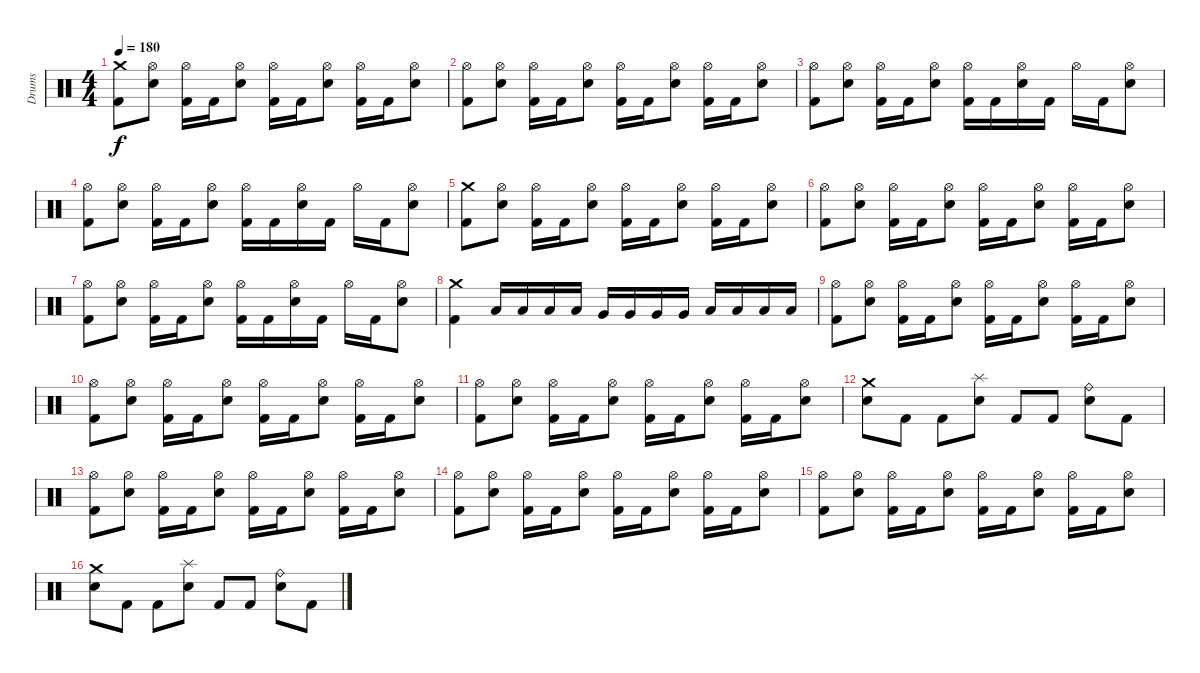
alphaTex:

\track ("Drums" "Drums") {instrument percussion}
\staff {score}
\articulation defaults
\ts (4 4)
\tempo 180
\clef neutral
\ks c
("Crash medium (hit)" "Kick (hit) 2").8{dy f} ("Hi-Hat (open)" "Electric Snare (hit)").8 ("Hi-Hat (open)" "Kick (hit) 2").16 "Kick (hit) 2".16 ("Hi-Hat (open)" "Electric Snare (hit)").8 ("Hi-Hat (open)" "Kick (hit) 2").16 "Kick (hit) 2".16 ("Hi-Hat (open)" "Electric Snare (hit)").8 ("Hi-Hat (open)" "Kick (hit) 2").16 "Kick (hit) 2".16 ("Hi-Hat (open)" "Electric Snare (hit)").8 |
("Hi-Hat (open)" "Kick (hit) 2").8 ("Hi-Hat (open)" "Electric Snare (hit)").8 ("Hi-Hat (open)" "Kick (hit) 2").16 "Kick (hit) 2".16 ("Hi-Hat (open)" "Electric Snare (hit)").8 ("Hi-Hat (open)" "Kick (hit) 2").16 "Kick (hit) 2".16 ("Hi-Hat (open)" "Electric Snare (hit)").8 ("Hi-Hat (open)" "Kick (hit) 2").16 "Kick (hit) 2".16 ("Hi-Hat (open)" "Electric Snare (hit)").8 |
("Hi-Hat (open)" "Kick (hit) 2").8 ("Hi-Hat (open)" "Electric Snare (hit)").8 ("Hi-Hat (open)" "Kick (hit) 2").16 "Kick (hit) 2".16 ("Hi-Hat (open)" "Electric Snare (hit)").8 ("Hi-Hat (open)" "Kick (hit) 2").16 "Kick (hit) 2".16 ("Hi-Hat (open)" "Electric Snare (hit)").16 "Kick (hit) 2".16 "Hi-Hat (open)".16 "Kick (hit) 2".16 ("Hi-Hat (open)" "Electric Snare (hit)").8 |
("Hi-Hat (open)" "Kick (hit) 2").8 ("Hi-Hat (open)" "Electric Snare (hit)").8 ("Hi-Hat (open)" "Kick (hit) 2").16 "Kick (hit) 2".16 ("Hi-Hat (open)" "Electric Snare (hit)").8 ("Hi-Hat (open)" "Kick (hit) 2").16 "Kick (hit) 2".16 ("Hi-Hat (open)" "Electric Snare (hit)").16 "Kick (hit) 2".16 "Hi-Hat (open)".16 "Kick (hit) 2".16 ("Hi-Hat (open)" "Electric Snare (hit)").8 |
("Crash medium (hit)" "Kick (hit) 2").8 ("Hi-Hat (open)" "Electric Snare (hit)").8 ("Hi-Hat (open)" "Kick (hit) 2").16 "Kick (hit) 2".16 ("Hi-Hat (open)" "Electric Snare (hit)").8 ("Hi-Hat (open)" "Kick (hit) 2").16 "Kick (hit) 2".16 ("Hi-Hat (open)" "Electric Snare (hit)").8 ("Hi-Hat (open)" "Kick (hit) 2").16 "Kick (hit) 2".16 ("Hi-Hat (open)" "Electric Snare (hit)").8 |
("Hi-Hat (open)" "Kick (hit) 2").8 ("Hi-Hat (open)" "Electric Snare (hit)").8 ("Hi-Hat (open)" "Kick (hit) 2").16 "Kick (hit) 2".16 ("Hi-Hat (open)" "Electric Snare (hit)").8 ("Hi-Hat (open)" "Kick (hit) 2").16 "Kick (hit) 2".16 ("Hi-Hat (open)" "Electric Snare (hit)").8 ("Hi-Hat (open)" "Kick (hit) 2").16 "Kick (hit) 2".16 ("Hi-Hat (open)" "Electric Snare (hit)").8 |
("Hi-Hat (open)" "Kick (hit) 2").8 ("Hi-Hat (open)" "Electric Snare (hit)").8 ("Hi-Hat (open)" "Kick (hit) 2").16 "Kick (hit) 2".16 ("Hi-Hat (open)" "Electric Snare (hit)").8 ("Hi-Hat (open)" "Kick (hit) 2").16 "Kick (hit) 2".16 ("Hi-Hat (open)" "Electric Snare (hit)").16 "Kick (hit) 2".16 "Hi-Hat (open)".16 "Kick (hit) 2".16 ("Hi-Hat (open)" "Electric Snare (hit)").8 |
("Crash medium (hit)" "Kick (hit) 2").4 "Low Tom (hit)".16 "Low Tom (hit)".16 "Low Tom (hit)".16 "Low Tom (hit)".16 "Very Low Tom (hit)".16 "Very Low Tom (hit)".16 "Very Low Tom (hit)".16 "Very Low Tom (hit)".16 "Low Floor Tom (hit)".16 "Low Floor Tom (hit)".16 "Low Floor Tom (hit)".16 "Low Floor Tom (hit)".16 |
("Hi-Hat (open)" "Kick (hit) 2").8 ("Hi-Hat (open)" "Electric Snare (hit)").8 ("Hi-Hat (open)" "Kick (hit) 2").16 "Kick (hit) 2".16 ("Hi-Hat (open)" "Electric Snare (hit)").8 ("Hi-Hat (open)" "Kick (hit) 2").16 "Kick (hit) 2".16 ("Hi-Hat (open)" "Electric Snare (hit)").8 ("Hi-Hat (open)" "Kick (hit) 2").16 "Kick (hit) 2".16 ("Hi-Hat (open)" "Electric Snare (hit)").8 |
("Hi-Hat (open)" "Kick (hit) 2").8 ("Hi-Hat (open)" "Electric Snare (hit)").8 ("Hi-Hat (open)" "Kick (hit) 2").16 "Kick (hit) 2".16 ("Hi-Hat (open)" "Electric Snare (hit)").8 ("Hi-Hat (open)" "Kick (hit) 2").16 "Kick (hit) 2".16 ("Hi-Hat (open)" "Electric Snare (hit)").8 ("Hi-Hat (open)" "Kick (hit) 2").16 "Kick (hit) 2".16 ("Hi-Hat (open)" "Electric Snare (hit)").8 |
("Hi-Hat (open)" "Kick (hit) 2").8 ("Hi-Hat (open)" "Electric Snare (hit)").8 ("Hi-Hat (open)" "Kick (hit) 2").16 "Kick (hit) 2".16 ("Hi-Hat (open)" "Electric Snare (hit)").8 ("Hi-Hat (open)" "Kick (hit) 2").16 "Kick (hit) 2".16 ("Hi-Hat (open)" "Electric Snare (hit)").8 ("Hi-Hat (open)" "Kick (hit) 2").16 "Kick (hit) 2".16 ("Hi-Hat (open)" "Electric Snare (hit)").8 |
("Crash medium (hit)" "Electric Snare (hit)").8 "Kick (hit) 2".8 "Kick (hit) 2".8 ("Splash (hit)" "Electric Snare (hit)").8 "Kick (hit) 2".8 "Kick (hit) 2".8 ("Ride (bell)" "Electric Snare (hit)").8 "Kick (hit) 2".8 |
("Hi-Hat (open)" "Kick (hit) 2").8 ("Hi-Hat (open)" "Electric Snare (hit)").8 ("Hi-Hat (open)" "Kick (hit) 2").16 "Kick (hit) 2".16 ("Hi-Hat (open)" "Electric Snare (hit)").8 ("Hi-Hat (open)" "Kick (hit) 2").16 "Kick (hit) 2".16 ("Hi-Hat (open)" "Electric Snare (hit)").8 ("Hi-Hat (open)" "Kick (hit) 2").16 "Kick (hit) 2".16 ("Hi-Hat (open)" "Electric Snare (hit)").8 |
("Hi-Hat (open)" "Kick (hit) 2").8 ("Hi-Hat (open)" "Electric Snare (hit)").8 ("Hi-Hat (open)" "Kick (hit) 2").16 "Kick (hit) 2".16 ("Hi-Hat (open)" "Electric Snare (hit)").8 ("Hi-Hat (open)" "Kick (hit) 2").16 "Kick (hit) 2".16 ("Hi-Hat (open)" "Electric Snare (hit)").8 ("Hi-Hat (open)" "Kick (hit) 2").16 "Kick (hit) 2".16 ("Hi-Hat (open)" "Electric Snare (hit)").8 |
("Hi-Hat (open)" "Kick (hit) 2").8 ("Hi-Hat (open)" "Electric Snare (hit)").8 ("Hi-Hat (open)" "Kick (hit) 2").16 "Kick (hit) 2".16 ("Hi-Hat (open)" "Electric Snare (hit)").8 ("Hi-Hat (open)" "Kick (hit) 2").16 "Kick (hit) 2".16 ("Hi-Hat (open)" "Electric Snare (hit)").8 ("Hi-Hat (open)" "Kick (hit) 2").16 "Kick (hit) 2".16 ("Hi-Hat (open)" "Electric Snare (hit)").8 |
("Crash medium (hit)" "Electric Snare (hit)").8 "Kick (hit) 2".8 "Kick (hit) 2".8 ("Splash (hit)" "Electric Snare (hit)").8 "Kick (hit) 2".8 "Kick (hit) 2".8 ("Ride (bell)" "Electric Snare (hit)").8 "Kick (hit) 2".8
